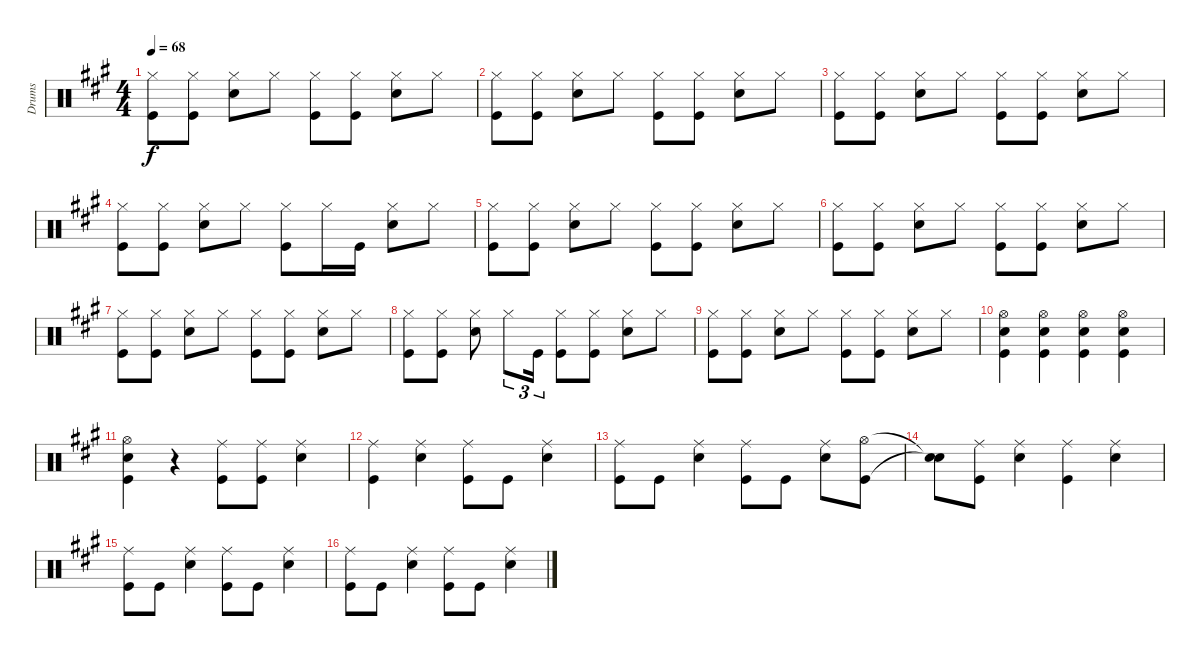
\track ("Drums" "Drums") {instrument percussion}
\staff {score}
\articulation defaults
\ts (4 4)
\tempo 68
\clef neutral
\ks a
("Hi-Hat (closed)" "Kick (hit)").8{dy f} ("Hi-Hat (closed)" "Kick (hit)").8 ("Hi-Hat (closed)" "Electric Snare (hit)").8 "Hi-Hat (closed)".8 ("Hi-Hat (closed)" "Kick (hit)").8 ("Hi-Hat (closed)" "Kick (hit)").8 ("Hi-Hat (closed)" "Electric Snare (hit)").8 "Hi-Hat (closed)".8 |
("Hi-Hat (closed)" "Kick (hit)").8 ("Hi-Hat (closed)" "Kick (hit)").8 ("Hi-Hat (closed)" "Electric Snare (hit)").8 "Hi-Hat (closed)".8 ("Hi-Hat (closed)" "Kick (hit)").8 ("Hi-Hat (closed)" "Kick (hit)").8 ("Hi-Hat (closed)" "Electric Snare (hit)").8 "Hi-Hat (closed)".8 |
("Hi-Hat (closed)" "Kick (hit)").8 ("Hi-Hat (closed)" "Kick (hit)").8 ("Hi-Hat (closed)" "Electric Snare (hit)").8 "Hi-Hat (closed)".8 ("Hi-Hat (closed)" "Kick (hit)").8 ("Hi-Hat (closed)" "Kick (hit)").8 ("Hi-Hat (closed)" "Electric Snare (hit)").8 "Hi-Hat (closed)".8 |
("Hi-Hat (closed)" "Kick (hit)").8 ("Hi-Hat (closed)" "Kick (hit)").8 ("Hi-Hat (closed)" "Electric Snare (hit)").8 "Hi-Hat (closed)".8 ("Hi-Hat (closed)" "Kick (hit)").8 "Hi-Hat (closed)".16 "Kick (hit)".16 ("Hi-Hat (closed)" "Electric Snare (hit)").8 "Hi-Hat (closed)".8 |
("Hi-Hat (closed)" "Kick (hit)").8 ("Hi-Hat (closed)" "Kick (hit)").8 ("Hi-Hat (closed)" "Electric Snare (hit)").8 "Hi-Hat (closed)".8 ("Hi-Hat (closed)" "Kick (hit)").8 ("Hi-Hat (closed)" "Kick (hit)").8 ("Hi-Hat (closed)" "Electric Snare (hit)").8 "Hi-Hat (closed)".8 |
("Hi-Hat (closed)" "Kick (hit)").8 ("Hi-Hat (closed)" "Kick (hit)").8 ("Hi-Hat (closed)" "Electric Snare (hit)").8 "Hi-Hat (closed)".8 ("Hi-Hat (closed)" "Kick (hit)").8 ("Hi-Hat (closed)" "Kick (hit)").8 ("Hi-Hat (closed)" "Electric Snare (hit)").8 "Hi-Hat (closed)".8 |
("Hi-Hat (closed)" "Kick (hit)").8 ("Hi-Hat (closed)" "Kick (hit)").8 ("Hi-Hat (closed)" "Electric Snare (hit)").8 "Hi-Hat (closed)".8 ("Hi-Hat (closed)" "Kick (hit)").8 ("Hi-Hat (closed)" "Kick (hit)").8 ("Hi-Hat (closed)" "Electric Snare (hit)").8 "Hi-Hat (closed)".8 |
("Hi-Hat (closed)" "Kick (hit)").8 ("Hi-Hat (closed)" "Kick (hit)").8 ("Hi-Hat (closed)" "Electric Snare (hit)").8 "Hi-Hat (closed)".8{tu (3 2)} "Kick (hit)".16{tu (3 2)} ("Hi-Hat (closed)" "Kick (hit)").8 ("Hi-Hat (closed)" "Kick (hit)").8 ("Hi-Hat (closed)" "Electric Snare (hit)").8 "Hi-Hat (closed)".8 |
("Hi-Hat (closed)" "Kick (hit)").8 ("Hi-Hat (closed)" "Kick (hit)").8 ("Hi-Hat (closed)" "Electric Snare (hit)").8 "Hi-Hat (closed)".8 ("Hi-Hat (closed)" "Kick (hit)").8 ("Hi-Hat (closed)" "Kick (hit)").8 ("Hi-Hat (closed)" "Electric Snare (hit)").8 "Hi-Hat (closed)".8 |
("Hi-Hat (open)" "Electric Snare (hit)" "Kick (hit)").4 ("Hi-Hat (open)" "Electric Snare (hit)" "Kick (hit)").4 ("Hi-Hat (open)" "Electric Snare (hit)" "Kick (hit)").4 ("Hi-Hat (open)" "Electric Snare (hit)" "Kick (hit)").4 |
("Hi-Hat (open)" "Electric Snare (hit)" "Kick (hit)").4 r.4 ("Ride (middle)" "Kick (hit)").8 ("Ride (middle)" "Kick (hit)").8 ("Ride (middle)" "Electric Snare (hit)").4 |
("Ride (middle)" "Kick (hit)").4 ("Ride (middle)" "Electric Snare (hit)").4 ("Ride (middle)" "Kick (hit)").8 "Kick (hit)".8 ("Ride (middle)" "Electric Snare (hit)").4 |
("Ride (middle)" "Kick (hit)").8 "Kick (hit)".8 ("Ride (middle)" "Electric Snare (hit)").4 ("Ride (middle)" "Kick (hit)").8 "Kick (hit)".8 ("Ride (middle)" "Electric Snare (hit)").8 ("Hi-Hat (open)" "Kick (hit)").8 |
("Snare (hit)"{t} "Snare (hit)"{t}).8 ("Ride (middle)" "Kick (hit)").8 ("Ride (middle)" "Electric Snare (hit)").4 ("Ride (middle)" "Kick (hit)").4 ("Ride (middle)" "Electric Snare (hit)").4 |
("Ride (middle)" "Kick (hit)").8 "Kick (hit)".8 ("Ride (middle)" "Electric Snare (hit)").4 ("Ride (middle)" "Kick (hit)").8 "Kick (hit)".8 ("Ride (middle)" "Electric Snare (hit)").4 |
("Ride (middle)" "Kick (hit)").8 "Kick (hit)".8 ("Ride (middle)" "Electric Snare (hit)").4 ("Ride (middle)" "Kick (hit)").8 "Kick (hit)".8 ("Ride (middle)" "Electric Snare (hit)").4
